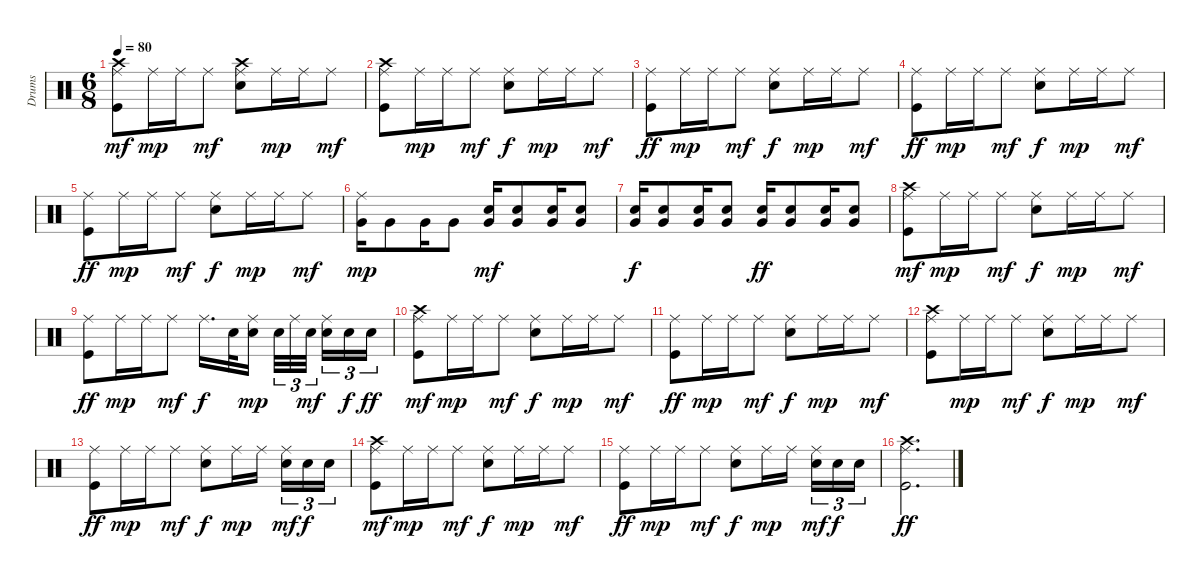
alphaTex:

\track ("Drums" "Drums") {instrument percussion}
\staff {score}
\articulation defaults
\ts (6 8)
\tempo 80
\clef neutral
\ks c
("Kick (hit)" "Ride (middle)" "Crash high (hit)").8{dy mf} "Ride (middle)".16{dy mp} "Ride (middle)".16 "Ride (middle)".8{dy mf} ("Ride (middle)" "Snare (hit) 2" "Crash high (hit)").8 "Ride (middle)".16{dy mp} "Ride (middle)".16 "Ride (middle)".8{dy mf} |
("Kick (hit)" "Ride (middle)" "Crash high (hit)").8 "Ride (middle)".16{dy mp} "Ride (middle)".16 "Ride (middle)".8{dy mf} ("Ride (middle)" "Snare (hit) 2").8{dy f} "Ride (middle)".16{dy mp} "Ride (middle)".16 "Ride (middle)".8{dy mf} |
("Kick (hit)" "Ride (middle)").8{dy ff} "Ride (middle)".16{dy mp} "Ride (middle)".16 "Ride (middle)".8{dy mf} ("Ride (middle)" "Snare (hit) 2").8{dy f} "Ride (middle)".16{dy mp} "Ride (middle)".16 "Ride (middle)".8{dy mf} |
("Kick (hit)" "Ride (middle)").8{dy ff} "Ride (middle)".16{dy mp} "Ride (middle)".16 "Ride (middle)".8{dy mf} ("Ride (middle)" "Snare (hit) 2").8{dy f} "Ride (middle)".16{dy mp} "Ride (middle)".16 "Ride (middle)".8{dy mf} |
("Kick (hit)" "Ride (middle)").8{dy ff} "Ride (middle)".16{dy mp} "Ride (middle)".16 "Ride (middle)".8{dy mf} ("Ride (middle)" "Snare (hit) 2").8{dy f} "Ride (middle)".16{dy mp} "Ride (middle)".16 "Ride (middle)".8{dy mf} |
("Very Low Tom (hit)" "Ride (middle)").16{dy mp} "Very Low Tom (hit)".8 "Very Low Tom (hit)".16 "Very Low Tom (hit)".8 ("Snare (hit) 2" "Very Low Tom (hit)").16{dy mf} ("Snare (hit) 2" "Very Low Tom (hit)").8 ("Snare (hit) 2" "Very Low Tom (hit)").16 ("Snare (hit) 2" "Very Low Tom (hit)").8 |
("Snare (hit) 2" "Very Low Tom (hit)").16{dy f} ("Snare (hit) 2" "Very Low Tom (hit)").8 ("Snare (hit) 2" "Very Low Tom (hit)").16 ("Snare (hit) 2" "Very Low Tom (hit)").8 ("Snare (hit) 2" "Very Low Tom (hit)").16{dy ff} ("Snare (hit) 2" "Very Low Tom (hit)").8 ("Snare (hit) 2" "Very Low Tom (hit)").16 ("Snare (hit) 2" "Very Low Tom (hit)").8 |
("Kick (hit)" "Ride (middle)" "Crash high (hit)").8{dy mf} "Ride (middle)".16{dy mp} "Ride (middle)".16 "Ride (middle)".8{dy mf} ("Ride (middle)" "Snare (hit) 2").8{dy f} "Ride (middle)".16{dy mp} "Ride (middle)".16 "Ride (middle)".8{dy mf} |
("Kick (hit)" "Ride (middle)").8{dy ff} "Ride (middle)".16{dy mp} "Ride (middle)".16 "Ride (middle)".8{dy mf} "Ride (middle)".16{d dy f} "Snare (hit) 2".32 ("Ride (middle)" "Snare (hit) 2").16{dy mp} "Snare (hit) 2".32{tu (3 2)} "Ride (middle)".32{tu (3 2)} "Snare (hit) 2".32{tu (3 2) dy mf} ("Ride (middle)" "Snare (hit) 2").16{tu (3 2)} "Snare (hit) 2".16{tu (3 2) dy f} "Snare (hit) 2".16{tu (3 2) dy ff} |
("Kick (hit)" "Ride (middle)" "Crash high (hit)").8{dy mf} "Ride (middle)".16{dy mp} "Ride (middle)".16 "Ride (middle)".8{dy mf} ("Ride (middle)" "Snare (hit) 2").8{dy f} "Ride (middle)".16{dy mp} "Ride (middle)".16 "Ride (middle)".8{dy mf} |
("Kick (hit)" "Ride (middle)").8{dy ff} "Ride (middle)".16{dy mp} "Ride (middle)".16 "Ride (middle)".8{dy mf} ("Ride (middle)" "Snare (hit) 2").8{dy f} "Ride (middle)".16{dy mp} "Ride (middle)".16 "Ride (middle)".8{dy mf} |
("Kick (hit)" "Ride (middle)" "Crash high (hit)").8 "Ride (middle)".16{dy mp} "Ride (middle)".16 "Ride (middle)".8{dy mf} ("Ride (middle)" "Snare (hit) 2").8{dy f} "Ride (middle)".16{dy mp} "Ride (middle)".16 "Ride (middle)".8{dy mf} |
("Kick (hit)" "Ride (middle)").8{dy ff} "Ride (middle)".16{dy mp} "Ride (middle)".16 "Ride (middle)".8{dy mf} ("Ride (middle)" "Snare (hit) 2").8{dy f} "Ride (middle)".16{dy mp} "Ride (middle)".16 ("Ride (middle)" "Snare (hit) 2").16{tu (3 2) dy mf} "Snare (hit) 2".16{tu (3 2) dy f} "Snare (hit) 2".16{tu (3 2)} |
("Kick (hit)" "Ride (middle)" "Crash high (hit)").8{dy mf} "Ride (middle)".16{dy mp} "Ride (middle)".16 "Ride (middle)".8{dy mf} ("Ride (middle)" "Snare (hit) 2").8{dy f} "Ride (middle)".16{dy mp} "Ride (middle)".16 "Ride (middle)".8{dy mf} |
("Kick (hit)" "Ride (middle)").8{dy ff} "Ride (middle)".16{dy mp} "Ride (middle)".16 "Ride (middle)".8{dy mf} ("Ride (middle)" "Snare (hit) 2").8{dy f} "Ride (middle)".16{dy mp} "Ride (middle)".16 ("Ride (middle)" "Snare (hit) 2").16{tu (3 2) dy mf} "Snare (hit) 2".16{tu (3 2) dy f} "Snare (hit) 2".16{tu (3 2)} |
("Kick (hit)" "Crash high (hit)" "Ride (middle)").2{d dy ff}
